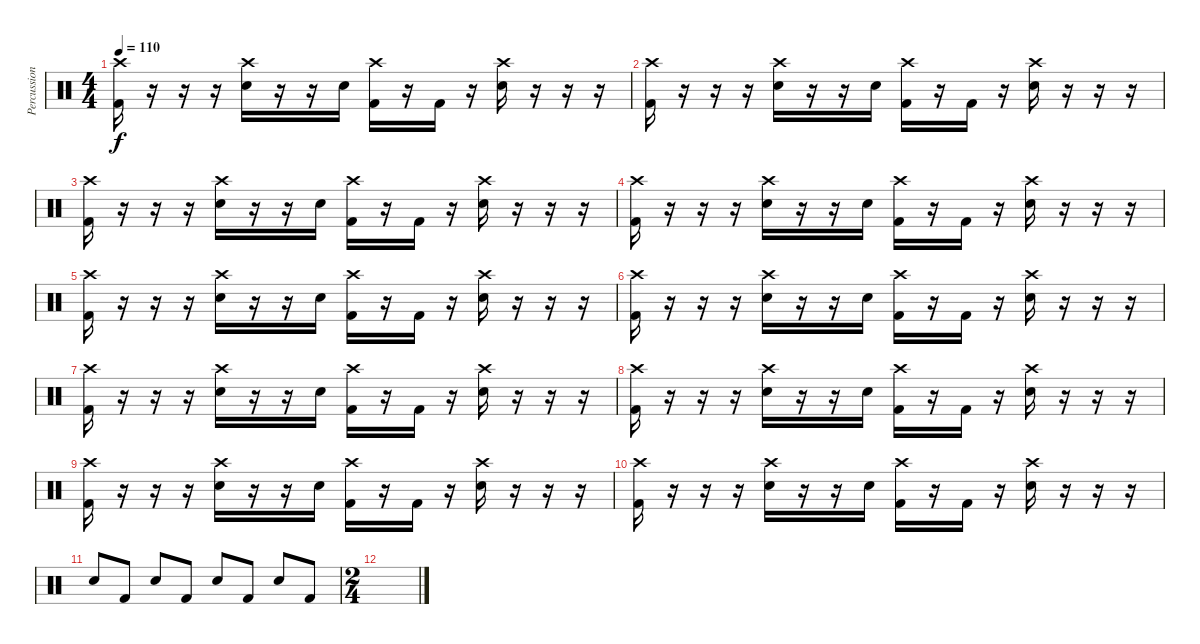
\track ("Percussion" "Percussion") {instrument percussion}
\staff {score}
\articulation defaults
\ts (4 4)
\tempo 110
\clef neutral
\ks c
("Crash high (hit)" "Kick (hit) 2").16{dy f} r.16 r.16 r.16 ("Crash high (hit)" "Snare (hit) 2").16 r.16 r.16 "Snare (hit) 2".16 ("Crash high (hit)" "Kick (hit) 2").16 r.16 "Kick (hit) 2".16 r.16 ("Crash high (hit)" "Snare (hit) 2").16 r.16 r.16 r.16 |
("Crash high (hit)" "Kick (hit) 2").16 r.16 r.16 r.16 ("Crash high (hit)" "Snare (hit) 2").16 r.16 r.16 "Snare (hit) 2".16 ("Crash high (hit)" "Kick (hit) 2").16 r.16 "Kick (hit) 2".16 r.16 ("Crash high (hit)" "Snare (hit) 2").16 r.16 r.16 r.16 |
("Crash high (hit)" "Kick (hit) 2").16 r.16 r.16 r.16 ("Crash high (hit)" "Snare (hit) 2").16 r.16 r.16 "Snare (hit) 2".16 ("Crash high (hit)" "Kick (hit) 2").16 r.16 "Kick (hit) 2".16 r.16 ("Crash high (hit)" "Snare (hit) 2").16 r.16 r.16 r.16 |
("Crash high (hit)" "Kick (hit) 2").16 r.16 r.16 r.16 ("Crash high (hit)" "Snare (hit) 2").16 r.16 r.16 "Snare (hit) 2".16 ("Crash high (hit)" "Kick (hit) 2").16 r.16 "Kick (hit) 2".16 r.16 ("Crash high (hit)" "Snare (hit) 2").16 r.16 r.16 r.16 |
("Crash high (hit)" "Kick (hit) 2").16 r.16 r.16 r.16 ("Crash high (hit)" "Snare (hit) 2").16 r.16 r.16 "Snare (hit) 2".16 ("Crash high (hit)" "Kick (hit) 2").16 r.16 "Kick (hit) 2".16 r.16 ("Crash high (hit)" "Snare (hit) 2").16 r.16 r.16 r.16 |
("Crash high (hit)" "Kick (hit) 2").16 r.16 r.16 r.16 ("Crash high (hit)" "Snare (hit) 2").16 r.16 r.16 "Snare (hit) 2".16 ("Crash high (hit)" "Kick (hit) 2").16 r.16 "Kick (hit) 2".16 r.16 ("Crash high (hit)" "Snare (hit) 2").16 r.16 r.16 r.16 |
("Crash high (hit)" "Kick (hit) 2").16 r.16 r.16 r.16 ("Crash high (hit)" "Snare (hit) 2").16 r.16 r.16 "Snare (hit) 2".16 ("Crash high (hit)" "Kick (hit) 2").16 r.16 "Kick (hit) 2".16 r.16 ("Crash high (hit)" "Snare (hit) 2").16 r.16 r.16 r.16 |
("Crash high (hit)" "Kick (hit) 2").16 r.16 r.16 r.16 ("Crash high (hit)" "Snare (hit) 2").16 r.16 r.16 "Snare (hit) 2".16 ("Crash high (hit)" "Kick (hit) 2").16 r.16 "Kick (hit) 2".16 r.16 ("Crash high (hit)" "Snare (hit) 2").16 r.16 r.16 r.16 |
("Crash high (hit)" "Kick (hit) 2").16 r.16 r.16 r.16 ("Crash high (hit)" "Snare (hit) 2").16 r.16 r.16 "Snare (hit) 2".16 ("Crash high (hit)" "Kick (hit) 2").16 r.16 "Kick (hit) 2".16 r.16 ("Crash high (hit)" "Snare (hit) 2").16 r.16 r.16 r.16 |
("Crash high (hit)" "Kick (hit) 2").16 r.16 r.16 r.16 ("Crash high (hit)" "Snare (hit) 2").16 r.16 r.16 "Snare (hit) 2".16 ("Crash high (hit)" "Kick (hit) 2").16 r.16 "Kick (hit) 2".16 r.16 ("Crash high (hit)" "Snare (hit) 2").16 r.16 r.16 r.16 |
"Snare (hit) 2".8 "Kick (hit) 2".8 "Snare (hit) 2".8 "Kick (hit) 2".8 "Snare (hit) 2".8 "Kick (hit) 2".8 "Snare (hit) 2".8 "Kick (hit) 2".8 |
\ts (2 4)
